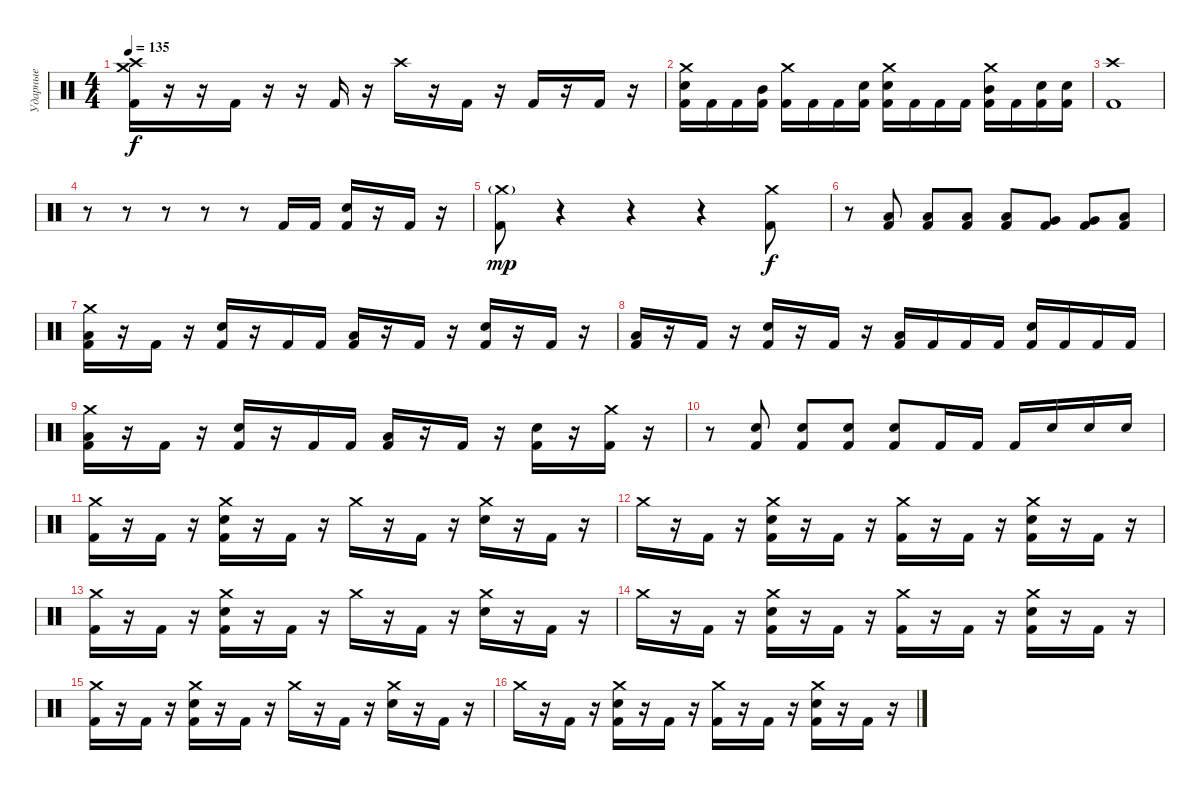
\track ("Ударные" "Ударные") {instrument percussion}
\staff {score}
\articulation defaults
\ts (4 4)
\tempo 135
\clef neutral
\ks c
("Crash high (hit)" "Crash medium (hit)" "Kick (hit) 2").16{dy f} r.16 r.16 "Kick (hit) 2".16 r.16 r.16 "Kick (hit) 2".16 r.16 "Crash high (hit)".16 r.16 "Kick (hit) 2".16 r.16 "Kick (hit) 2".16 r.16 "Kick (hit) 2".16 r.16 |
("Crash medium (hit)" "Snare (hit) 2" "Kick (hit) 2").16 "Kick (hit) 2".16 "Kick (hit) 2".16 ("Mid Tom (hit)" "Kick (hit) 2").16 ("Crash medium (hit)" "Kick (hit) 2").16 "Kick (hit) 2".16 "Kick (hit) 2".16 ("Electric Snare (hit)" "Kick (hit) 2").16 ("Crash medium (hit)" "Electric Snare (hit)" "Kick (hit) 2").16 "Kick (hit) 2".16 "Kick (hit) 2".16 "Kick (hit) 2".16 ("Crash medium (hit)" "Mid Tom (hit)" "Kick (hit) 2").16 "Kick (hit) 2".16 ("Electric Snare (hit)" "Kick (hit) 2").16 ("Electric Snare (hit)" "Kick (hit) 2").16 |
("Crash high (hit)" "Kick (hit) 2").1 |
r.8 r.8 r.8 r.8 r.8 "Kick (hit) 2".16 "Kick (hit) 2".16 ("Electric Snare (hit)" "Kick (hit) 2").16 r.16 "Kick (hit) 2".16 r.16 |
("Crash medium (hit)"{g} "Kick (hit) 2").8{dy mp} r.4 r.4 r.4 ("Crash medium (hit)" "Kick (hit) 2").8{dy f} |
r.8 ("Low Tom (hit)" "Kick (hit) 2").8 ("Low Tom (hit)" "Kick (hit) 2").8 ("Low Tom (hit)" "Kick (hit) 2").8 ("Low Tom (hit)" "Kick (hit) 2").8 ("Very Low Tom (hit)" "Kick (hit) 2").8 ("Very Low Tom (hit)" "Kick (hit) 2").8 ("Low Floor Tom (hit)" "Kick (hit) 2").8 |
("Crash medium (hit)" "Low Tom (hit)" "Kick (hit) 2").16 r.16 "Kick (hit) 2".16 r.16 ("Electric Snare (hit)" "Kick (hit) 2").16 r.16 "Kick (hit) 2".16 "Kick (hit) 2".16 ("Low Tom (hit)" "Kick (hit) 2").16 r.16 "Kick (hit) 2".16 r.16 ("Electric Snare (hit)" "Kick (hit) 2").16 r.16 "Kick (hit) 2".16 r.16 |
("Low Tom (hit)" "Kick (hit) 2").16 r.16 "Kick (hit) 2".16 r.16 ("Electric Snare (hit)" "Kick (hit) 2").16 r.16 "Kick (hit) 2".16 r.16 ("Low Tom (hit)" "Kick (hit) 2").16 "Kick (hit) 2".16 "Kick (hit) 2".16 "Kick (hit) 2".16 ("Electric Snare (hit)" "Kick (hit) 2").16 "Kick (hit) 2".16 "Kick (hit) 2".16 "Kick (hit) 2".16 |
("Crash medium (hit)" "Low Tom (hit)" "Kick (hit) 2").16 r.16 "Kick (hit) 2".16 r.16 ("Electric Snare (hit)" "Kick (hit) 2").16 r.16 "Kick (hit) 2".16 "Kick (hit) 2".16 ("Low Tom (hit)" "Kick (hit) 2").16 r.16 "Kick (hit) 2".16 r.16 ("Electric Snare (hit)" "Kick (hit) 2").16 r.16 ("Crash medium (hit)" "Kick (hit) 2").16 r.16 |
r.8 ("Electric Snare (hit)" "Kick (hit) 2").8 ("Electric Snare (hit)" "Kick (hit) 2").8 ("Electric Snare (hit)" "Kick (hit) 2").8 ("Electric Snare (hit)" "Kick (hit) 2").8 "Kick (hit) 2".16 "Kick (hit) 2".16 "Kick (hit) 2".16 "Electric Snare (hit)".16 "Electric Snare (hit)".16 "Electric Snare (hit)".16 |
("Crash medium (hit)" "Kick (hit) 2").16 r.16 "Kick (hit) 2".16 r.16 ("Crash medium (hit)" "Electric Snare (hit)" "Kick (hit) 2").16 r.16 "Kick (hit) 2".16 r.16 "Crash medium (hit)".16 r.16 "Kick (hit) 2".16 r.16 ("Crash medium (hit)" "Electric Snare (hit)").16 r.16 "Kick (hit) 2".16 r.16 |
"Crash medium (hit)".16 r.16 "Kick (hit) 2".16 r.16 ("Crash medium (hit)" "Electric Snare (hit)" "Kick (hit) 2").16 r.16 "Kick (hit) 2".16 r.16 ("Crash medium (hit)" "Kick (hit) 2").16 r.16 "Kick (hit) 2".16 r.16 ("Crash medium (hit)" "Electric Snare (hit)" "Kick (hit) 2").16 r.16 "Kick (hit) 2".16 r.16 |
("Crash medium (hit)" "Kick (hit) 2").16 r.16 "Kick (hit) 2".16 r.16 ("Crash medium (hit)" "Electric Snare (hit)" "Kick (hit) 2").16 r.16 "Kick (hit) 2".16 r.16 "Crash medium (hit)".16 r.16 "Kick (hit) 2".16 r.16 ("Crash medium (hit)" "Electric Snare (hit)").16 r.16 "Kick (hit) 2".16 r.16 |
"Crash medium (hit)".16 r.16 "Kick (hit) 2".16 r.16 ("Crash medium (hit)" "Electric Snare (hit)" "Kick (hit) 2").16 r.16 "Kick (hit) 2".16 r.16 ("Crash medium (hit)" "Kick (hit) 2").16 r.16 "Kick (hit) 2".16 r.16 ("Crash medium (hit)" "Electric Snare (hit)" "Kick (hit) 2").16 r.16 "Kick (hit) 2".16 r.16 |
("Crash medium (hit)" "Kick (hit) 2").16 r.16 "Kick (hit) 2".16 r.16 ("Crash medium (hit)" "Electric Snare (hit)" "Kick (hit) 2").16 r.16 "Kick (hit) 2".16 r.16 "Crash medium (hit)".16 r.16 "Kick (hit) 2".16 r.16 ("Crash medium (hit)" "Electric Snare (hit)").16 r.16 "Kick (hit) 2".16 r.16 |
"Crash medium (hit)".16 r.16 "Kick (hit) 2".16 r.16 ("Crash medium (hit)" "Electric Snare (hit)" "Kick (hit) 2").16 r.16 "Kick (hit) 2".16 r.16 ("Crash medium (hit)" "Kick (hit) 2").16 r.16 "Kick (hit) 2".16 r.16 ("Crash medium (hit)" "Electric Snare (hit)" "Kick (hit) 2").16 r.16 "Kick (hit) 2".16 r.16
